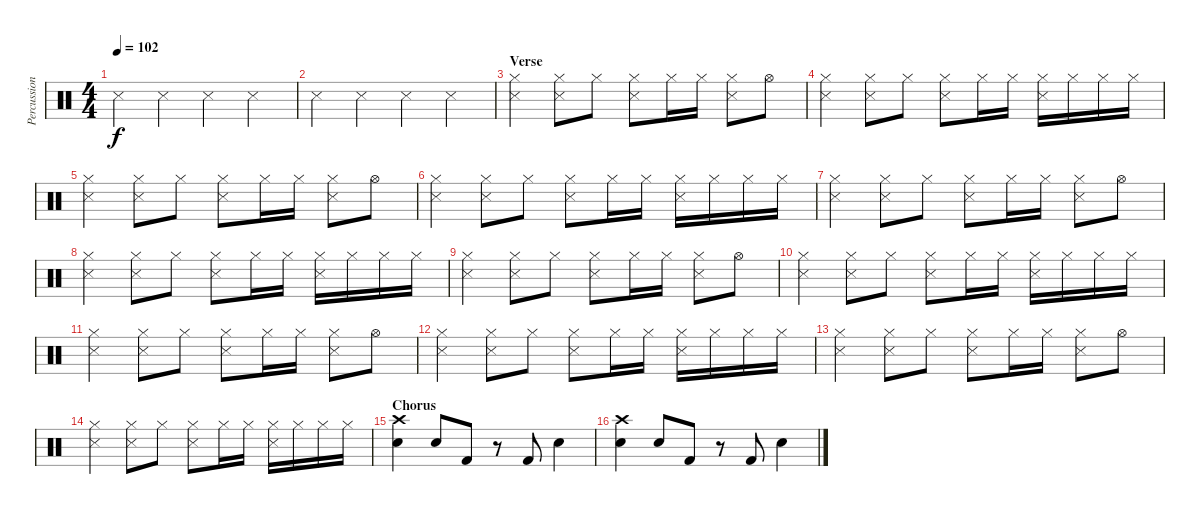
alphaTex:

\track ("Percussion" "Percussion") {instrument percussion}
\staff {score}
\articulation defaults
\ts (4 4)
\tempo 102
\clef neutral
\ks c "Snare (side stick) 3".4{dy f} "Snare (side stick) 3".4 "Snare (side stick) 3".4 "Snare (side stick) 3".4
|
"Snare (side stick) 3".4 "Snare (side stick) 3".4 "Snare (side stick) 3".4 "Snare (side stick) 3".4 |
\section ("" "Verse")
("Snare (side stick) 3" "Hi-Hat (closed)").4 ("Snare (side stick) 3" "Hi-Hat (closed)").8 "Hi-Hat (closed)".8 ("Snare (side stick) 3" "Hi-Hat (closed)").8 "Hi-Hat (closed)".16 "Hi-Hat (closed)".16 ("Snare (side stick) 3" "Hi-Hat (closed)").8 "Hi-Hat (open)".8 |
("Snare (side stick) 3" "Hi-Hat (closed)").4 ("Snare (side stick) 3" "Hi-Hat (closed)").8 "Hi-Hat (closed)".8 ("Snare (side stick) 3" "Hi-Hat (closed)").8 "Hi-Hat (closed)".16 "Hi-Hat (closed)".16 ("Snare (side stick) 3" "Hi-Hat (closed)").16 "Hi-Hat (closed)".16 "Hi-Hat (closed)".16 "Hi-Hat (closed)".16 |
("Snare (side stick) 3" "Hi-Hat (closed)").4 ("Snare (side stick) 3" "Hi-Hat (closed)").8 "Hi-Hat (closed)".8 ("Snare (side stick) 3" "Hi-Hat (closed)").8 "Hi-Hat (closed)".16 "Hi-Hat (closed)".16 ("Snare (side stick) 3" "Hi-Hat (closed)").8 "Hi-Hat (open)".8 |
("Snare (side stick) 3" "Hi-Hat (closed)").4 ("Snare (side stick) 3" "Hi-Hat (closed)").8 "Hi-Hat (closed)".8 ("Snare (side stick) 3" "Hi-Hat (closed)").8 "Hi-Hat (closed)".16 "Hi-Hat (closed)".16 ("Snare (side stick) 3" "Hi-Hat (closed)").16 "Hi-Hat (closed)".16 "Hi-Hat (closed)".16 "Hi-Hat (closed)".16 |
("Snare (side stick) 3" "Hi-Hat (closed)").4 ("Snare (side stick) 3" "Hi-Hat (closed)").8 "Hi-Hat (closed)".8 ("Snare (side stick) 3" "Hi-Hat (closed)").8 "Hi-Hat (closed)".16 "Hi-Hat (closed)".16 ("Snare (side stick) 3" "Hi-Hat (closed)").8 "Hi-Hat (open)".8 |
("Snare (side stick) 3" "Hi-Hat (closed)").4 ("Snare (side stick) 3" "Hi-Hat (closed)").8 "Hi-Hat (closed)".8 ("Snare (side stick) 3" "Hi-Hat (closed)").8 "Hi-Hat (closed)".16 "Hi-Hat (closed)".16 ("Snare (side stick) 3" "Hi-Hat (closed)").16 "Hi-Hat (closed)".16 "Hi-Hat (closed)".16 "Hi-Hat (closed)".16 |
("Snare (side stick) 3" "Hi-Hat (closed)").4 ("Snare (side stick) 3" "Hi-Hat (closed)").8 "Hi-Hat (closed)".8 ("Snare (side stick) 3" "Hi-Hat (closed)").8 "Hi-Hat (closed)".16 "Hi-Hat (closed)".16 ("Snare (side stick) 3" "Hi-Hat (closed)").8 "Hi-Hat (open)".8 |
("Snare (side stick) 3" "Hi-Hat (closed)").4 ("Snare (side stick) 3" "Hi-Hat (closed)").8 "Hi-Hat (closed)".8 ("Snare (side stick) 3" "Hi-Hat (closed)").8 "Hi-Hat (closed)".16 "Hi-Hat (closed)".16 ("Snare (side stick) 3" "Hi-Hat (closed)").16 "Hi-Hat (closed)".16 "Hi-Hat (closed)".16 "Hi-Hat (closed)".16 |
("Snare (side stick) 3" "Hi-Hat (closed)").4 ("Snare (side stick) 3" "Hi-Hat (closed)").8 "Hi-Hat (closed)".8 ("Snare (side stick) 3" "Hi-Hat (closed)").8 "Hi-Hat (closed)".16 "Hi-Hat (closed)".16 ("Snare (side stick) 3" "Hi-Hat (closed)").8 "Hi-Hat (open)".8 |
("Snare (side stick) 3" "Hi-Hat (closed)").4 ("Snare (side stick) 3" "Hi-Hat (closed)").8 "Hi-Hat (closed)".8 ("Snare (side stick) 3" "Hi-Hat (closed)").8 "Hi-Hat (closed)".16 "Hi-Hat (closed)".16 ("Snare (side stick) 3" "Hi-Hat (closed)").16 "Hi-Hat (closed)".16 "Hi-Hat (closed)".16 "Hi-Hat (closed)".16 |
("Snare (side stick) 3" "Hi-Hat (closed)").4 ("Snare (side stick) 3" "Hi-Hat (closed)").8 "Hi-Hat (closed)".8 ("Snare (side stick) 3" "Hi-Hat (closed)").8 "Hi-Hat (closed)".16 "Hi-Hat (closed)".16 ("Snare (side stick) 3" "Hi-Hat (closed)").8 "Hi-Hat (open)".8 |
("Snare (side stick) 3" "Hi-Hat (closed)").4 ("Snare (side stick) 3" "Hi-Hat (closed)").8 "Hi-Hat (closed)".8 ("Snare (side stick) 3" "Hi-Hat (closed)").8 "Hi-Hat (closed)".16 "Hi-Hat (closed)".16 ("Snare (side stick) 3" "Hi-Hat (closed)").16 "Hi-Hat (closed)".16 "Hi-Hat (closed)".16 "Hi-Hat (closed)".16 |
\section ("" "Chorus")
("Crash high (hit)" "Snare (hit) 2").4 "Snare (hit) 2".8 "Kick (hit) 2".8 r.8 "Kick (hit) 2".8 "Snare (hit) 2".4 |
("Crash high (hit)" "Snare (hit) 2").4 "Snare (hit) 2".8 "Kick (hit) 2".8 r.8 "Kick (hit) 2".8 "Snare (hit) 2".4
